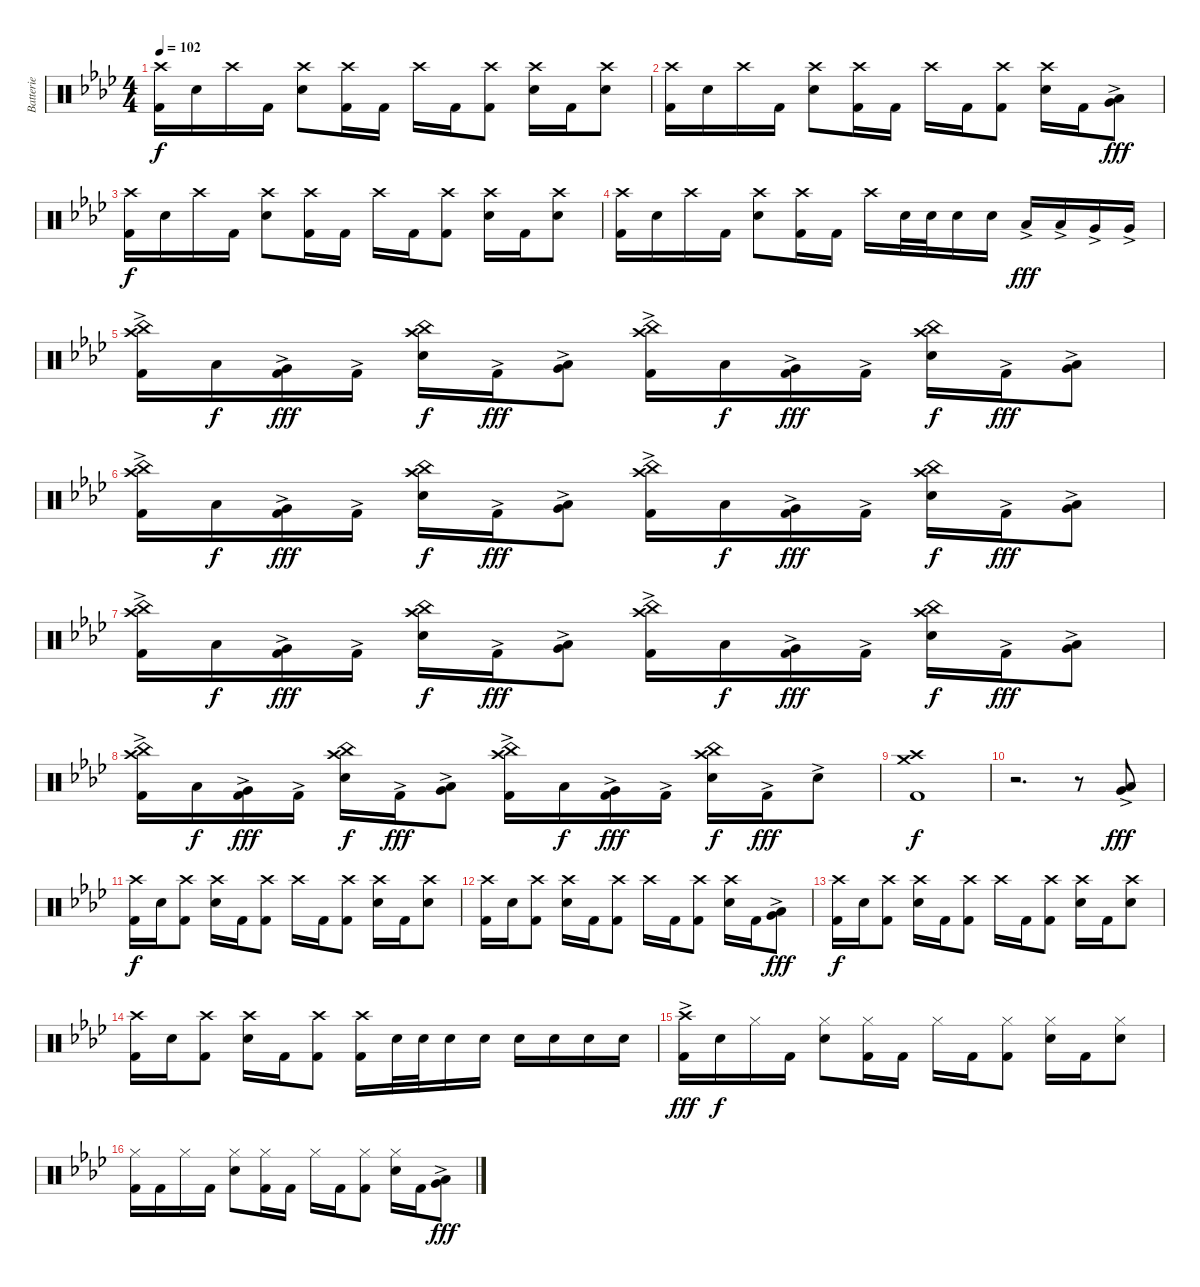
\track ("Batterie" "Batterie") {instrument percussion}
\staff {score}
\articulation defaults
\ts (4 4)
\section ("" "")
\tempo 102
\clef neutral
\ks fminor
("Crash high (hit)" "Kick (hit) 2").16{dy f} "Snare (hit) 2".16 "Crash high (hit)".16 "Kick (hit) 2".16 ("Crash high (hit)" "Snare (hit) 2").8 ("Crash high (hit)" "Kick (hit) 2").16 "Kick (hit) 2".16 "Crash high (hit)".16 "Kick (hit) 2".16 ("Crash high (hit)" "Kick (hit) 2").8 ("Crash high (hit)" "Snare (hit) 2").16 "Kick (hit) 2".16 ("Crash high (hit)" "Snare (hit) 2").8 |
("Crash high (hit)" "Kick (hit) 2").16 "Snare (hit) 2".16 "Crash high (hit)".16 "Kick (hit) 2".16 ("Crash high (hit)" "Snare (hit) 2").8 ("Crash high (hit)" "Kick (hit) 2").16 "Kick (hit) 2".16 "Crash high (hit)".16 "Kick (hit) 2".16 ("Crash high (hit)" "Kick (hit) 2").8 ("Crash high (hit)" "Snare (hit) 2").16 "Kick (hit) 2".16 ("Low Tom (hit)"{ac} "Very Low Tom (hit)"{ac}).8{dy fff} |
("Crash high (hit)" "Kick (hit) 2").16{dy f} "Snare (hit) 2".16 "Crash high (hit)".16 "Kick (hit) 2".16 ("Crash high (hit)" "Snare (hit) 2").8 ("Crash high (hit)" "Kick (hit) 2").16 "Kick (hit) 2".16 "Crash high (hit)".16 "Kick (hit) 2".16 ("Crash high (hit)" "Kick (hit) 2").8 ("Crash high (hit)" "Snare (hit) 2").16 "Kick (hit) 2".16 ("Crash high (hit)" "Snare (hit) 2").8 |
("Crash high (hit)" "Kick (hit) 2").16 "Snare (hit) 2".16 "Crash high (hit)".16 "Kick (hit) 2".16 ("Crash high (hit)" "Snare (hit) 2").8 ("Crash high (hit)" "Kick (hit) 2").16 "Kick (hit) 2".16 "Crash high (hit)".16 "Snare (hit) 2".32 "Snare (hit) 2".32 "Snare (hit) 2".16 "Snare (hit) 2".16 "Low Tom (hit)"{ac}.16{dy fff} "Low Tom (hit)"{ac}.16 "Very Low Tom (hit)"{ac}.16 "Very Low Tom (hit)"{ac}.16 |
("Crash high (hit)" "China (hit)" "Kick (hit) 2"{ac}).16 "Low Tom (hit)".16{dy f} ("Very Low Tom (hit)" "Kick (hit) 2"{ac}).16{dy fff} "Kick (hit) 2"{ac}.16 ("Crash high (hit)" "China (hit)" "Snare (hit) 2").16{dy f} "Kick (hit) 2"{ac}.16{dy fff} ("Low Tom (hit)" "Very Low Tom (hit)"{ac}).8 ("Crash high (hit)" "China (hit)" "Kick (hit) 2"{ac}).16 "Low Tom (hit)".16{dy f} ("Very Low Tom (hit)" "Kick (hit) 2"{ac}).16{dy fff} "Kick (hit) 2"{ac}.16 ("Crash high (hit)" "China (hit)" "Snare (hit) 2").16{dy f} "Kick (hit) 2"{ac}.16{dy fff} ("Low Tom (hit)" "Very Low Tom (hit)"{ac}).8 |
("Crash high (hit)" "China (hit)" "Kick (hit) 2"{ac}).16 "Low Tom (hit)".16{dy f} ("Very Low Tom (hit)" "Kick (hit) 2"{ac}).16{dy fff} "Kick (hit) 2"{ac}.16 ("Crash high (hit)" "China (hit)" "Snare (hit) 2").16{dy f} "Kick (hit) 2"{ac}.16{dy fff} ("Low Tom (hit)" "Very Low Tom (hit)"{ac}).8 ("Crash high (hit)" "China (hit)" "Kick (hit) 2"{ac}).16 "Low Tom (hit)".16{dy f} ("Very Low Tom (hit)" "Kick (hit) 2"{ac}).16{dy fff} "Kick (hit) 2"{ac}.16 ("Crash high (hit)" "China (hit)" "Snare (hit) 2").16{dy f} "Kick (hit) 2"{ac}.16{dy fff} ("Low Tom (hit)" "Very Low Tom (hit)"{ac}).8 |
("Crash high (hit)" "China (hit)" "Kick (hit) 2"{ac}).16 "Low Tom (hit)".16{dy f} ("Very Low Tom (hit)" "Kick (hit) 2"{ac}).16{dy fff} "Kick (hit) 2"{ac}.16 ("Crash high (hit)" "China (hit)" "Snare (hit) 2").16{dy f} "Kick (hit) 2"{ac}.16{dy fff} ("Low Tom (hit)" "Very Low Tom (hit)"{ac}).8 ("Crash high (hit)" "China (hit)" "Kick (hit) 2"{ac}).16 "Low Tom (hit)".16{dy f} ("Very Low Tom (hit)" "Kick (hit) 2"{ac}).16{dy fff} "Kick (hit) 2"{ac}.16 ("Crash high (hit)" "China (hit)" "Snare (hit) 2").16{dy f} "Kick (hit) 2"{ac}.16{dy fff} ("Low Tom (hit)" "Very Low Tom (hit)"{ac}).8 |
("Crash high (hit)" "China (hit)" "Kick (hit) 2"{ac}).16 "Low Tom (hit)".16{dy f} ("Very Low Tom (hit)" "Kick (hit) 2"{ac}).16{dy fff} "Kick (hit) 2"{ac}.16 ("Crash high (hit)" "China (hit)" "Snare (hit) 2").16{dy f} "Kick (hit) 2"{ac}.16{dy fff} ("Low Tom (hit)" "Very Low Tom (hit)"{ac}).8 ("Crash high (hit)" "China (hit)" "Kick (hit) 2"{ac}).16 "Low Tom (hit)".16{dy f} ("Very Low Tom (hit)" "Kick (hit) 2"{ac}).16{dy fff} "Kick (hit) 2"{ac}.16 ("Crash high (hit)" "China (hit)" "Snare (hit) 2").16{dy f} "Kick (hit) 2"{ac}.16{dy fff} "Snare (hit) 2"{ac}.8 |
\section ("" "")
("Crash high (hit)" "Crash medium (hit)" "Kick (hit) 2").1{dy f} |
r.2{d} r.8 ("Low Tom (hit)"{ac} "Very Low Tom (hit)"{ac}).8{dy fff} |
("Crash high (hit)" "Kick (hit) 2").16{dy f} "Snare (hit) 2".16 ("Crash high (hit)" "Kick (hit) 2").8 ("Crash high (hit)" "Snare (hit) 2").16 "Kick (hit) 2".16 ("Crash high (hit)" "Kick (hit) 2").8 "Crash high (hit)".16 "Kick (hit) 2".16 ("Crash high (hit)" "Kick (hit) 2").8 ("Crash high (hit)" "Snare (hit) 2").16 "Kick (hit) 2".16 ("Crash high (hit)" "Snare (hit) 2").8 |
("Crash high (hit)" "Kick (hit) 2").16 "Snare (hit) 2".16 ("Crash high (hit)" "Kick (hit) 2").8 ("Crash high (hit)" "Snare (hit) 2").16 "Kick (hit) 2".16 ("Crash high (hit)" "Kick (hit) 2").8 "Crash high (hit)".16 "Kick (hit) 2".16 ("Crash high (hit)" "Kick (hit) 2").8 ("Crash high (hit)" "Snare (hit) 2").16 "Kick (hit) 2".16 ("Low Tom (hit)" "Very Low Tom (hit)"{ac}).8{dy fff} |
("Crash high (hit)" "Kick (hit) 2").16{dy f} "Snare (hit) 2".16 ("Crash high (hit)" "Kick (hit) 2").8 ("Crash high (hit)" "Snare (hit) 2").16 "Kick (hit) 2".16 ("Crash high (hit)" "Kick (hit) 2").8 "Crash high (hit)".16 "Kick (hit) 2".16 ("Crash high (hit)" "Kick (hit) 2").8 ("Crash high (hit)" "Snare (hit) 2").16 "Kick (hit) 2".16 ("Crash high (hit)" "Snare (hit) 2").8 |
("Crash high (hit)" "Kick (hit) 2").16 "Snare (hit) 2".16 ("Crash high (hit)" "Kick (hit) 2").8 ("Crash high (hit)" "Snare (hit) 2").16 "Kick (hit) 2".16 ("Crash high (hit)" "Kick (hit) 2").8 ("Crash high (hit)" "Kick (hit) 2").16 "Snare (hit) 2".32 "Snare (hit) 2".32 "Snare (hit) 2".16 "Snare (hit) 2".16 "Snare (hit) 2".16 "Snare (hit) 2".16 "Snare (hit) 2".16 "Snare (hit) 2".16 |
\section ("" "")
("Crash high (hit)" "Kick (hit) 2"{ac}).16{dy fff} "Snare (hit) 2".16{dy f} "Hi-Hat (closed)".16 "Kick (hit) 2".16 ("Hi-Hat (closed)" "Snare (hit) 2").8 ("Hi-Hat (closed)" "Kick (hit) 2").16 "Kick (hit) 2".16 "Hi-Hat (closed)".16 "Kick (hit) 2".16 ("Hi-Hat (closed)" "Kick (hit) 2").8 ("Hi-Hat (closed)" "Snare (hit) 2").16 "Kick (hit) 2".16 ("Hi-Hat (closed)" "Snare (hit) 2").8 |
("Hi-Hat (closed)" "Kick (hit) 2").16 "Kick (hit) 2".16 "Hi-Hat (closed)".16 "Kick (hit) 2".16 ("Hi-Hat (closed)" "Snare (hit) 2").8 ("Hi-Hat (closed)" "Kick (hit) 2").16 "Kick (hit) 2".16 "Hi-Hat (closed)".16 "Kick (hit) 2".16 ("Hi-Hat (closed)" "Kick (hit) 2").8 ("Hi-Hat (closed)" "Snare (hit) 2").16 "Kick (hit) 2".16 ("Low Tom (hit)" "Very Low Tom (hit)"{ac}).8{dy fff}
